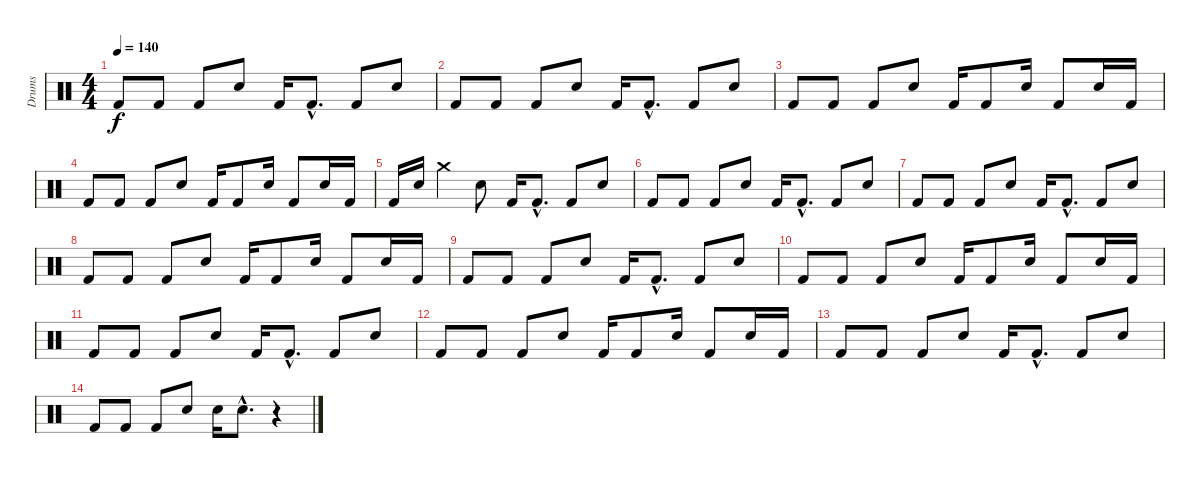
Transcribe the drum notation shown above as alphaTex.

\track ("Drums" "Drums") {instrument percussion}
\staff {score}
\articulation defaults
\ts (4 4)
\tempo 140
\clef neutral
\ks c "Kick (hit) 2".8{dy f} "Kick (hit) 2".8 "Kick (hit) 2".8 "Snare (hit) 2".8 "Kick (hit) 2".16 "Kick (hit) 2"{hac}.8{d} "Kick (hit) 2".8 "Snare (hit) 2".8
|
"Kick (hit) 2".8 "Kick (hit) 2".8 "Kick (hit) 2".8 "Snare (hit) 2".8 "Kick (hit) 2".16 "Kick (hit) 2"{hac}.8{d} "Kick (hit) 2".8 "Snare (hit) 2".8 |
"Kick (hit) 2".8 "Kick (hit) 2".8 "Kick (hit) 2".8 "Snare (hit) 2".8 "Kick (hit) 2".16 "Kick (hit) 2".8 "Snare (hit) 2".16 "Kick (hit) 2".8 "Snare (hit) 2".16 "Kick (hit) 2".16 |
"Kick (hit) 2".8 "Kick (hit) 2".8 "Kick (hit) 2".8 "Snare (hit) 2".8 "Kick (hit) 2".16 "Kick (hit) 2".8 "Snare (hit) 2".16 "Kick (hit) 2".8 "Snare (hit) 2".16 "Kick (hit) 2".16 |
"Kick (hit) 2".16 "Snare (hit) 2".16 "Crash medium (hit)".4 "Snare (hit) 2".8 "Kick (hit) 2".16 "Kick (hit) 2"{hac}.8{d} "Kick (hit) 2".8 "Snare (hit) 2".8 |
"Kick (hit) 2".8 "Kick (hit) 2".8 "Kick (hit) 2".8 "Snare (hit) 2".8 "Kick (hit) 2".16 "Kick (hit) 2"{hac}.8{d} "Kick (hit) 2".8 "Snare (hit) 2".8 |
"Kick (hit) 2".8 "Kick (hit) 2".8 "Kick (hit) 2".8 "Snare (hit) 2".8 "Kick (hit) 2".16 "Kick (hit) 2"{hac}.8{d} "Kick (hit) 2".8 "Snare (hit) 2".8 |
"Kick (hit) 2".8 "Kick (hit) 2".8 "Kick (hit) 2".8 "Snare (hit) 2".8 "Kick (hit) 2".16 "Kick (hit) 2".8 "Snare (hit) 2".16 "Kick (hit) 2".8 "Snare (hit) 2".16 "Kick (hit) 2".16 |
"Kick (hit) 2".8 "Kick (hit) 2".8 "Kick (hit) 2".8 "Snare (hit) 2".8 "Kick (hit) 2".16 "Kick (hit) 2"{hac}.8{d} "Kick (hit) 2".8 "Snare (hit) 2".8 |
"Kick (hit) 2".8 "Kick (hit) 2".8 "Kick (hit) 2".8 "Snare (hit) 2".8 "Kick (hit) 2".16 "Kick (hit) 2".8 "Snare (hit) 2".16 "Kick (hit) 2".8 "Snare (hit) 2".16 "Kick (hit) 2".16 |
"Kick (hit) 2".8 "Kick (hit) 2".8 "Kick (hit) 2".8 "Snare (hit) 2".8 "Kick (hit) 2".16 "Kick (hit) 2"{hac}.8{d} "Kick (hit) 2".8 "Snare (hit) 2".8 |
"Kick (hit) 2".8 "Kick (hit) 2".8 "Kick (hit) 2".8 "Snare (hit) 2".8 "Kick (hit) 2".16 "Kick (hit) 2".8 "Snare (hit) 2".16 "Kick (hit) 2".8 "Snare (hit) 2".16 "Kick (hit) 2".16 |
"Kick (hit) 2".8 "Kick (hit) 2".8 "Kick (hit) 2".8 "Snare (hit) 2".8 "Kick (hit) 2".16 "Kick (hit) 2"{hac}.8{d} "Kick (hit) 2".8 "Snare (hit) 2".8 |
"Kick (hit) 2".8 "Kick (hit) 2".8 "Kick (hit) 2".8 "Snare (hit) 2".8 "Snare (hit) 2".16 "Snare (hit) 2"{hac}.8{d} r.4
